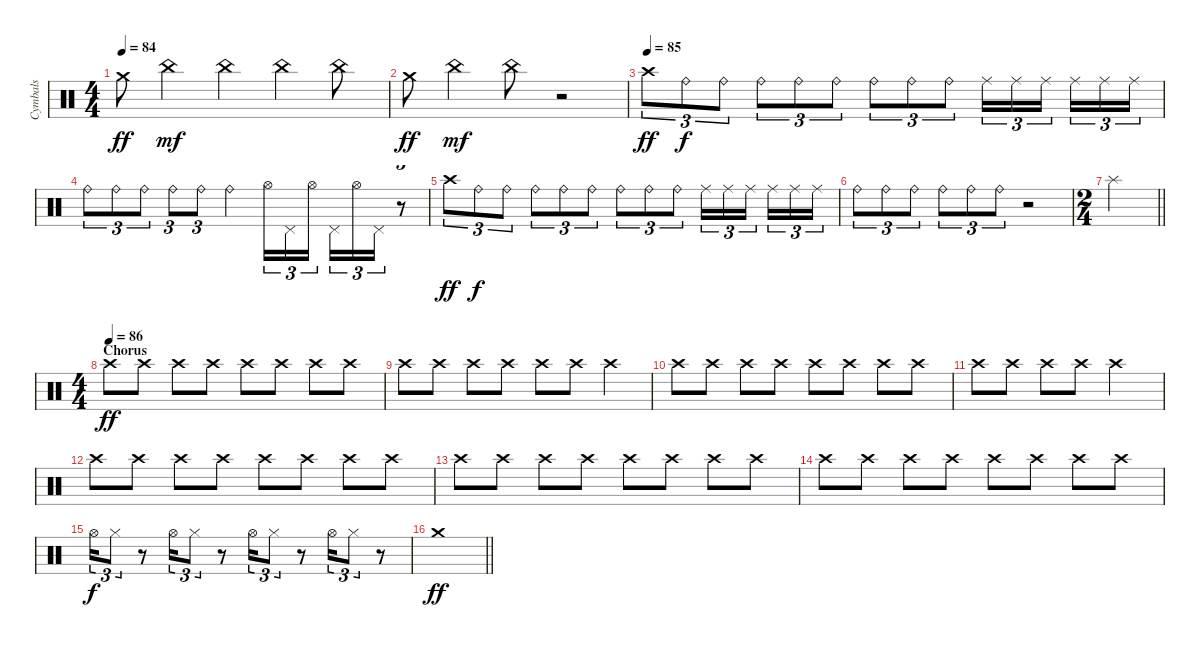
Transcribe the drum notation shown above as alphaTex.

\track ("Cymbals" "Cymbals") {instrument percussion}
\staff {score}
\articulation defaults
\ts (4 4)
\tempo 84
\clef neutral
\ks c "Crash medium (hit)".8{dy ff} "China (hit)".4{dy mf} "China (hit)".4 "China (hit)".4 "China (hit)".8
|
"Crash medium (hit)".8{dy ff} "China (hit)".4{dy mf} "China (hit)".8 r.2 |
\tempo (85)
"Crash high (hit)".8{tu (3 2) dy ff} "Ride (bell)".8{tu (3 2) dy f} "Ride (bell)".8{tu (3 2)} "Ride (bell)".8{tu (3 2)} "Ride (bell)".8{tu (3 2)} "Ride (bell)".8{tu (3 2)} "Ride (bell)".8{tu (3 2)} "Ride (bell)".8{tu (3 2)} "Ride (bell)".8{tu (3 2)} "Ride (middle)".16{tu (3 2)} "Ride (middle)".16{tu (3 2)} "Ride (middle)".16{tu (3 2) beam splitsecondary} "Ride (middle)".16{tu (3 2)} "Ride (middle)".16{tu (3 2)} "Ride (middle)".16{tu (3 2)} |
"Ride (bell)".8{tu (3 2)} "Ride (bell)".8{tu (3 2)} "Ride (bell)".8{tu (3 2)} "Ride (bell)".8{tu (3 2)} "Ride (bell)".8{tu (3 2)} "Ride (bell)".4 "Hi-Hat (open)".16{tu (3 2)} "Pedal Hi-Hat (hit)".16{tu (3 2)} "Hi-Hat (open)".16{tu (3 2) beam splitsecondary} "Pedal Hi-Hat (hit)".16{tu (3 2)} "Hi-Hat (open)".16{tu (3 2)} "Pedal Hi-Hat (hit)".16{tu (3 2)} r.8{tu (3 2)} |
"Crash high (hit)".8{tu (3 2) dy ff} "Ride (bell)".8{tu (3 2) dy f} "Ride (bell)".8{tu (3 2)} "Ride (bell)".8{tu (3 2)} "Ride (bell)".8{tu (3 2)} "Ride (bell)".8{tu (3 2)} "Ride (bell)".8{tu (3 2)} "Ride (bell)".8{tu (3 2)} "Ride (bell)".8{tu (3 2)} "Ride (middle)".16{tu (3 2)} "Ride (middle)".16{tu (3 2)} "Ride (middle)".16{tu (3 2) beam splitsecondary} "Ride (middle)".16{tu (3 2)} "Ride (middle)".16{tu (3 2)} "Ride (middle)".16{tu (3 2)} |
"Ride (bell)".8{tu (3 2)} "Ride (bell)".8{tu (3 2)} "Ride (bell)".8{tu (3 2)} "Ride (bell)".8{tu (3 2)} "Ride (bell)".8{tu (3 2)} "Ride (bell)".8{tu (3 2)} r.2 |
\ts (2 4)
\barLineRight lightlight "Splash (hit)".2
|
\ts (4 4)
\section ("" "Chorus")
\tempo (86)
"Crash high (hit)".8{dy ff} "Crash high (hit)".8 "Crash high (hit)".8 "Crash high (hit)".8 "Crash high (hit)".8 "Crash high (hit)".8 "Crash high (hit)".8 "Crash high (hit)".8 |
"Crash high (hit)".8 "Crash high (hit)".8 "Crash high (hit)".8 "Crash high (hit)".8 "Crash high (hit)".8 "Crash high (hit)".8 "Crash high (hit)".4 |
"Crash high (hit)".8 "Crash high (hit)".8 "Crash high (hit)".8 "Crash high (hit)".8 "Crash high (hit)".8 "Crash high (hit)".8 "Crash high (hit)".8 "Crash high (hit)".8 |
"Crash high (hit)".8 "Crash high (hit)".8 "Crash high (hit)".8 "Crash high (hit)".8 "Crash high (hit)".2 |
"Crash high (hit)".8 "Crash high (hit)".8 "Crash high (hit)".8 "Crash high (hit)".8 "Crash high (hit)".8 "Crash high (hit)".8 "Crash high (hit)".8 "Crash high (hit)".8 |
"Crash high (hit)".8 "Crash high (hit)".8 "Crash high (hit)".8 "Crash high (hit)".8 "Crash high (hit)".8 "Crash high (hit)".8 "Crash high (hit)".8 "Crash high (hit)".8 |
"Crash high (hit)".8 "Crash high (hit)".8 "Crash high (hit)".8 "Crash high (hit)".8 "Crash high (hit)".8 "Crash high (hit)".8 "Crash high (hit)".8 "Crash high (hit)".8 |
"Hi-Hat (open)".16{tu (3 2) dy f} "Hi-Hat (closed)".8{tu (3 2)} r.8 "Hi-Hat (open)".16{tu (3 2)} "Hi-Hat (closed)".8{tu (3 2)} r.8 "Hi-Hat (open)".16{tu (3 2)} "Hi-Hat (closed)".8{tu (3 2)} r.8 "Hi-Hat (open)".16{tu (3 2)} "Hi-Hat (closed)".8{tu (3 2)} r.8 |
\barLineRight lightlight "Crash medium (hit)".1{dy ff}
